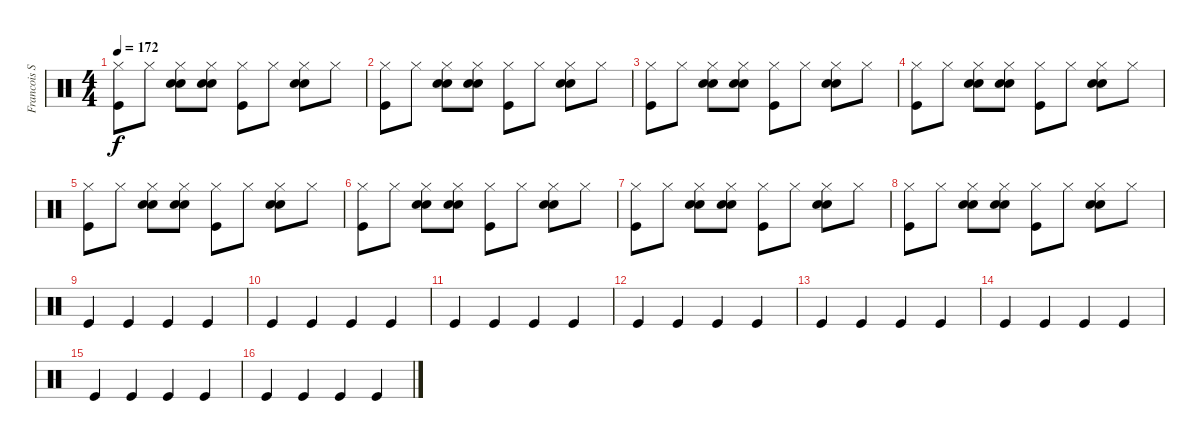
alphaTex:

\track ("Francois Soulier" "Francois S") {instrument percussion}
\staff {score}
\articulation defaults
\ts (4 4)
\tempo 172
\clef neutral
\ks c
("Hi-Hat (closed)" "Kick (hit)").8{dy f} "Hi-Hat (closed)".8 ("Electric Snare (hit)" "Hi-Hat (closed)" "Snare (hit) 2").8 ("Electric Snare (hit)" "Hi-Hat (closed)" "Snare (hit) 2").8 ("Hi-Hat (closed)" "Kick (hit)").8 "Hi-Hat (closed)".8 ("Electric Snare (hit)" "Hi-Hat (closed)" "Snare (hit) 2").8 "Hi-Hat (closed)".8 |
("Hi-Hat (closed)" "Kick (hit)").8 "Hi-Hat (closed)".8 ("Electric Snare (hit)" "Hi-Hat (closed)" "Snare (hit) 2").8 ("Electric Snare (hit)" "Hi-Hat (closed)" "Snare (hit) 2").8 ("Hi-Hat (closed)" "Kick (hit)").8 "Hi-Hat (closed)".8 ("Electric Snare (hit)" "Hi-Hat (closed)" "Snare (hit) 2").8 "Hi-Hat (closed)".8 |
("Hi-Hat (closed)" "Kick (hit)").8 "Hi-Hat (closed)".8 ("Electric Snare (hit)" "Hi-Hat (closed)" "Snare (hit) 2").8 ("Electric Snare (hit)" "Hi-Hat (closed)" "Snare (hit) 2").8 ("Hi-Hat (closed)" "Kick (hit)").8 "Hi-Hat (closed)".8 ("Electric Snare (hit)" "Hi-Hat (closed)" "Snare (hit) 2").8 "Hi-Hat (closed)".8 |
("Hi-Hat (closed)" "Kick (hit)").8 "Hi-Hat (closed)".8 ("Electric Snare (hit)" "Hi-Hat (closed)" "Snare (hit) 2").8 ("Electric Snare (hit)" "Hi-Hat (closed)" "Snare (hit) 2").8 ("Hi-Hat (closed)" "Kick (hit)").8 "Hi-Hat (closed)".8 ("Electric Snare (hit)" "Hi-Hat (closed)" "Snare (hit) 2").8 "Hi-Hat (closed)".8 |
("Hi-Hat (closed)" "Kick (hit)").8 "Hi-Hat (closed)".8 ("Electric Snare (hit)" "Hi-Hat (closed)" "Snare (hit) 2").8 ("Electric Snare (hit)" "Hi-Hat (closed)" "Snare (hit) 2").8 ("Hi-Hat (closed)" "Kick (hit)").8 "Hi-Hat (closed)".8 ("Electric Snare (hit)" "Hi-Hat (closed)" "Snare (hit) 2").8 "Hi-Hat (closed)".8 |
("Hi-Hat (closed)" "Kick (hit)").8 "Hi-Hat (closed)".8 ("Electric Snare (hit)" "Hi-Hat (closed)" "Snare (hit) 2").8 ("Electric Snare (hit)" "Hi-Hat (closed)" "Snare (hit) 2").8 ("Hi-Hat (closed)" "Kick (hit)").8 "Hi-Hat (closed)".8 ("Electric Snare (hit)" "Hi-Hat (closed)" "Snare (hit) 2").8 "Hi-Hat (closed)".8 |
("Hi-Hat (closed)" "Kick (hit)").8 "Hi-Hat (closed)".8 ("Electric Snare (hit)" "Hi-Hat (closed)" "Snare (hit) 2").8 ("Electric Snare (hit)" "Hi-Hat (closed)" "Snare (hit) 2").8 ("Hi-Hat (closed)" "Kick (hit)").8 "Hi-Hat (closed)".8 ("Electric Snare (hit)" "Hi-Hat (closed)" "Snare (hit) 2").8 "Hi-Hat (closed)".8 |
("Hi-Hat (closed)" "Kick (hit)").8 "Hi-Hat (closed)".8 ("Electric Snare (hit)" "Hi-Hat (closed)" "Snare (hit) 2").8 ("Electric Snare (hit)" "Hi-Hat (closed)" "Snare (hit) 2").8 ("Hi-Hat (closed)" "Kick (hit)").8 "Hi-Hat (closed)".8 ("Electric Snare (hit)" "Hi-Hat (closed)" "Snare (hit) 2").8 "Hi-Hat (closed)".8 |
"Kick (hit)".4 "Kick (hit)".4 "Kick (hit)".4 "Kick (hit)".4 |
"Kick (hit)".4 "Kick (hit)".4 "Kick (hit)".4 "Kick (hit)".4 |
"Kick (hit)".4 "Kick (hit)".4 "Kick (hit)".4 "Kick (hit)".4 |
"Kick (hit)".4 "Kick (hit)".4 "Kick (hit)".4 "Kick (hit)".4 |
"Kick (hit)".4 "Kick (hit)".4 "Kick (hit)".4 "Kick (hit)".4 |
"Kick (hit)".4 "Kick (hit)".4 "Kick (hit)".4 "Kick (hit)".4 |
"Kick (hit)".4 "Kick (hit)".4 "Kick (hit)".4 "Kick (hit)".4 |
"Kick (hit)".4 "Kick (hit)".4 "Kick (hit)".4 "Kick (hit)".4
